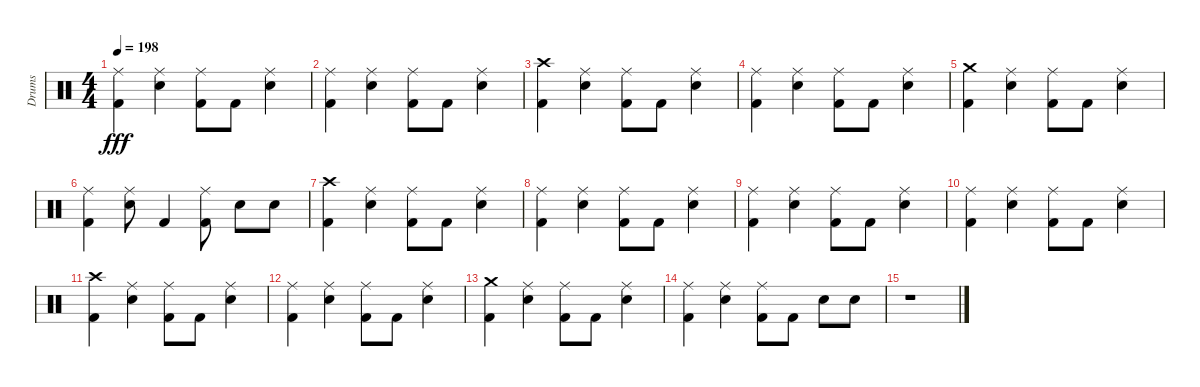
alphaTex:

\track ("Drums" "Drums") {instrument percussion}
\staff {score}
\articulation defaults
\ts (4 4)
\tempo 198
\clef neutral
\ks c
("Ride (middle)" "Kick (hit) 2").4{dy fff} ("Ride (middle)" "Electric Snare (hit)").4 ("Ride (middle)" "Kick (hit) 2").8 "Kick (hit) 2".8 ("Ride (middle)" "Electric Snare (hit)").4 |
("Ride (middle)" "Kick (hit) 2").4 ("Ride (middle)" "Electric Snare (hit)").4 ("Ride (middle)" "Kick (hit) 2").8 "Kick (hit) 2".8 ("Ride (middle)" "Electric Snare (hit)").4 |
("Crash high (hit)" "Kick (hit) 2").4 ("Ride (middle)" "Electric Snare (hit)").4 ("Ride (middle)" "Kick (hit) 2").8 "Kick (hit) 2".8 ("Ride (middle)" "Electric Snare (hit)").4 |
("Ride (middle)" "Kick (hit) 2").4 ("Ride (middle)" "Electric Snare (hit)").4 ("Ride (middle)" "Kick (hit) 2").8 "Kick (hit) 2".8 ("Ride (middle)" "Electric Snare (hit)").4 |
("Crash medium (hit)" "Kick (hit) 2").4 ("Ride (middle)" "Electric Snare (hit)").4 ("Ride (middle)" "Kick (hit) 2").8 "Kick (hit) 2".8 ("Ride (middle)" "Electric Snare (hit)").4 |
("Ride (middle)" "Kick (hit) 2").4 ("Ride (middle)" "Electric Snare (hit)").8 "Kick (hit) 2".4 ("Ride (middle)" "Kick (hit) 2").8 "Electric Snare (hit)".8 "Electric Snare (hit)".8 |
("Crash high (hit)" "Kick (hit) 2").4{volume 12} ("Ride (middle)" "Electric Snare (hit)").4 ("Ride (middle)" "Kick (hit) 2").8 "Kick (hit) 2".8 ("Ride (middle)" "Electric Snare (hit)").4 |
("Ride (middle)" "Kick (hit) 2").4 ("Ride (middle)" "Electric Snare (hit)").4 ("Ride (middle)" "Kick (hit) 2").8 "Kick (hit) 2".8 ("Ride (middle)" "Electric Snare (hit)").4 |
("Ride (middle)" "Kick (hit) 2").4{volume 9} ("Ride (middle)" "Electric Snare (hit)").4 ("Ride (middle)" "Kick (hit) 2").8 "Kick (hit) 2".8 ("Ride (middle)" "Electric Snare (hit)").4 |
("Ride (middle)" "Kick (hit) 2").4 ("Ride (middle)" "Electric Snare (hit)").4 ("Ride (middle)" "Kick (hit) 2").8 "Kick (hit) 2".8 ("Ride (middle)" "Electric Snare (hit)").4 |
("Crash high (hit)" "Kick (hit) 2").4{volume 5} ("Ride (middle)" "Electric Snare (hit)").4 ("Ride (middle)" "Kick (hit) 2").8 "Kick (hit) 2".8 ("Ride (middle)" "Electric Snare (hit)").4 |
("Ride (middle)" "Kick (hit) 2").4 ("Ride (middle)" "Electric Snare (hit)").4 ("Ride (middle)" "Kick (hit) 2").8 "Kick (hit) 2".8 ("Ride (middle)" "Electric Snare (hit)").4 |
("Crash medium (hit)" "Kick (hit) 2").4{volume 0} ("Ride (middle)" "Electric Snare (hit)").4 ("Ride (middle)" "Kick (hit) 2").8 "Kick (hit) 2".8 ("Ride (middle)" "Electric Snare (hit)").4 |
("Ride (middle)" "Kick (hit) 2").4 ("Ride (middle)" "Electric Snare (hit)").4 ("Ride (middle)" "Kick (hit) 2").8 "Kick (hit) 2".8 "Electric Snare (hit)".8 "Electric Snare (hit)".8 |
r.1{volume 16}
